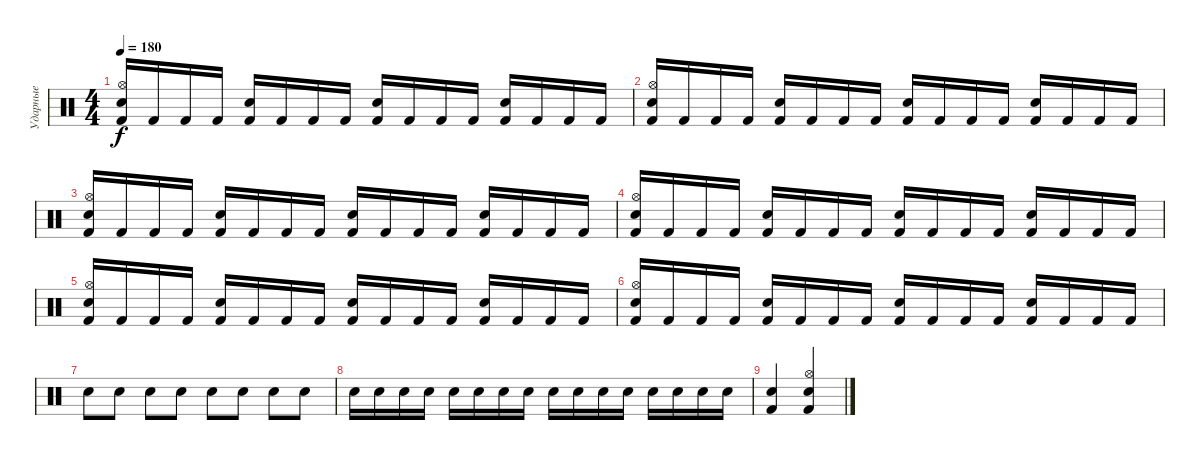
\track ("Ударные" "Ударные") {instrument percussion}
\staff
\articulation defaults
\ts (4 4)
\tempo 180
\clef neutral
\ks c
("Kick (hit) 2" "Hi-Hat (open)" "Electric Snare (hit)").16{dy f} "Kick (hit) 2".16 "Kick (hit) 2".16 "Kick (hit) 2".16 ("Kick (hit) 2" "Electric Snare (hit)").16 "Kick (hit) 2".16 "Kick (hit) 2".16 "Kick (hit) 2".16 ("Kick (hit) 2" "Electric Snare (hit)").16 "Kick (hit) 2".16 "Kick (hit) 2".16 "Kick (hit) 2".16 ("Kick (hit) 2" "Electric Snare (hit)").16 "Kick (hit) 2".16 "Kick (hit) 2".16 "Kick (hit) 2".16 |
("Kick (hit) 2" "Hi-Hat (open)" "Electric Snare (hit)").16 "Kick (hit) 2".16 "Kick (hit) 2".16 "Kick (hit) 2".16 ("Kick (hit) 2" "Electric Snare (hit)").16 "Kick (hit) 2".16 "Kick (hit) 2".16 "Kick (hit) 2".16 ("Kick (hit) 2" "Electric Snare (hit)").16 "Kick (hit) 2".16 "Kick (hit) 2".16 "Kick (hit) 2".16 ("Kick (hit) 2" "Electric Snare (hit)").16 "Kick (hit) 2".16 "Kick (hit) 2".16 "Kick (hit) 2".16 |
("Kick (hit) 2" "Hi-Hat (open)" "Electric Snare (hit)").16 "Kick (hit) 2".16 "Kick (hit) 2".16 "Kick (hit) 2".16 ("Kick (hit) 2" "Electric Snare (hit)").16 "Kick (hit) 2".16 "Kick (hit) 2".16 "Kick (hit) 2".16 ("Kick (hit) 2" "Electric Snare (hit)").16 "Kick (hit) 2".16 "Kick (hit) 2".16 "Kick (hit) 2".16 ("Kick (hit) 2" "Electric Snare (hit)").16 "Kick (hit) 2".16 "Kick (hit) 2".16 "Kick (hit) 2".16 |
("Kick (hit) 2" "Hi-Hat (open)" "Electric Snare (hit)").16 "Kick (hit) 2".16 "Kick (hit) 2".16 "Kick (hit) 2".16 ("Kick (hit) 2" "Electric Snare (hit)").16 "Kick (hit) 2".16 "Kick (hit) 2".16 "Kick (hit) 2".16 ("Kick (hit) 2" "Electric Snare (hit)").16 "Kick (hit) 2".16 "Kick (hit) 2".16 "Kick (hit) 2".16 ("Kick (hit) 2" "Electric Snare (hit)").16 "Kick (hit) 2".16 "Kick (hit) 2".16 "Kick (hit) 2".16 |
("Kick (hit) 2" "Hi-Hat (open)" "Electric Snare (hit)").16 "Kick (hit) 2".16 "Kick (hit) 2".16 "Kick (hit) 2".16 ("Kick (hit) 2" "Electric Snare (hit)").16 "Kick (hit) 2".16 "Kick (hit) 2".16 "Kick (hit) 2".16 ("Kick (hit) 2" "Electric Snare (hit)").16 "Kick (hit) 2".16 "Kick (hit) 2".16 "Kick (hit) 2".16 ("Kick (hit) 2" "Electric Snare (hit)").16 "Kick (hit) 2".16 "Kick (hit) 2".16 "Kick (hit) 2".16 |
("Kick (hit) 2" "Hi-Hat (open)" "Electric Snare (hit)").16 "Kick (hit) 2".16 "Kick (hit) 2".16 "Kick (hit) 2".16 ("Kick (hit) 2" "Electric Snare (hit)").16 "Kick (hit) 2".16 "Kick (hit) 2".16 "Kick (hit) 2".16 ("Kick (hit) 2" "Electric Snare (hit)").16 "Kick (hit) 2".16 "Kick (hit) 2".16 "Kick (hit) 2".16 ("Kick (hit) 2" "Electric Snare (hit)").16 "Kick (hit) 2".16 "Kick (hit) 2".16 "Kick (hit) 2".16 |
"Electric Snare (hit)".8 "Electric Snare (hit)".8 "Electric Snare (hit)".8 "Electric Snare (hit)".8 "Electric Snare (hit)".8 "Electric Snare (hit)".8 "Electric Snare (hit)".8 "Electric Snare (hit)".8 |
"Electric Snare (hit)".16 "Electric Snare (hit)".16 "Electric Snare (hit)".16 "Electric Snare (hit)".16 "Electric Snare (hit)".16 "Electric Snare (hit)".16 "Electric Snare (hit)".16 "Electric Snare (hit)".16 "Electric Snare (hit)".16 "Electric Snare (hit)".16 "Electric Snare (hit)".16 "Electric Snare (hit)".16 "Electric Snare (hit)".16 "Electric Snare (hit)".16 "Electric Snare (hit)".16 "Electric Snare (hit)".16 |
("Kick (hit) 2" "Electric Snare (hit)").4 ("Hi-Hat (open)" "Kick (hit) 2" "Electric Snare (hit)").4
